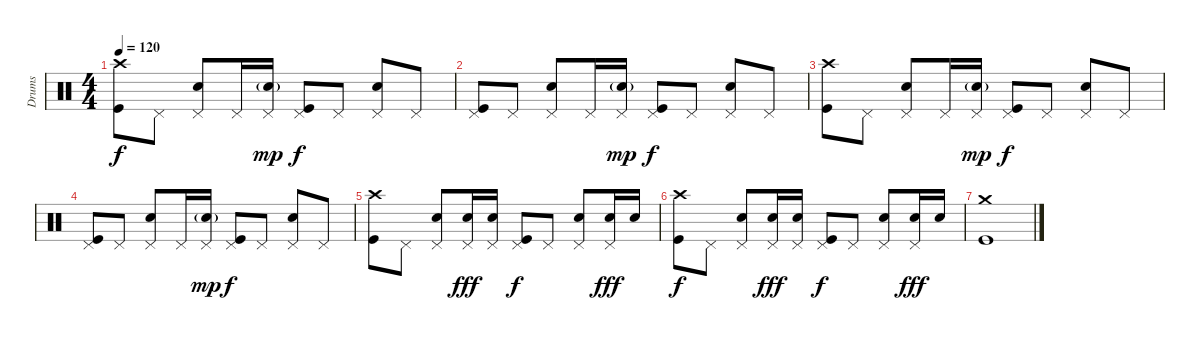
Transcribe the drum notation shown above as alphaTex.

\track ("Drums" "Drums") {instrument percussion}
\staff {score}
\articulation defaults
\ts (4 4)
\tempo 120
\clef neutral
\ks c
("Crash high (hit)" "Kick (hit)").8{dy f} "Pedal Hi-Hat (hit)".8 ("Snare (hit) 2" "Pedal Hi-Hat (hit)").8 "Pedal Hi-Hat (hit)".16 ("Snare (hit) 2"{g} "Pedal Hi-Hat (hit)").16{dy mp} ("Kick (hit)" "Pedal Hi-Hat (hit)").8{dy f} "Pedal Hi-Hat (hit)".8 ("Snare (hit) 2" "Pedal Hi-Hat (hit)").8 "Pedal Hi-Hat (hit)".8 |
("Kick (hit)" "Pedal Hi-Hat (hit)").8 "Pedal Hi-Hat (hit)".8 ("Snare (hit) 2" "Pedal Hi-Hat (hit)").8 "Pedal Hi-Hat (hit)".16 ("Snare (hit) 2"{g} "Pedal Hi-Hat (hit)").16{dy mp} ("Kick (hit)" "Pedal Hi-Hat (hit)").8{dy f} "Pedal Hi-Hat (hit)".8 ("Snare (hit) 2" "Pedal Hi-Hat (hit)").8 "Pedal Hi-Hat (hit)".8 |
("Crash high (hit)" "Kick (hit)").8 "Pedal Hi-Hat (hit)".8 ("Snare (hit) 2" "Pedal Hi-Hat (hit)").8 "Pedal Hi-Hat (hit)".16 ("Snare (hit) 2"{g} "Pedal Hi-Hat (hit)").16{dy mp} ("Kick (hit)" "Pedal Hi-Hat (hit)").8{dy f} "Pedal Hi-Hat (hit)".8 ("Snare (hit) 2" "Pedal Hi-Hat (hit)").8 "Pedal Hi-Hat (hit)".8 |
("Kick (hit)" "Pedal Hi-Hat (hit)").8 "Pedal Hi-Hat (hit)".8 ("Snare (hit) 2" "Pedal Hi-Hat (hit)").8 "Pedal Hi-Hat (hit)".16 ("Snare (hit) 2"{g} "Pedal Hi-Hat (hit)").16{dy mp} ("Kick (hit)" "Pedal Hi-Hat (hit)").8{dy f} "Pedal Hi-Hat (hit)".8 ("Snare (hit) 2" "Pedal Hi-Hat (hit)").8 "Pedal Hi-Hat (hit)".8 |
("Crash high (hit)" "Kick (hit)").8 "Pedal Hi-Hat (hit)".8 ("Snare (hit) 2" "Pedal Hi-Hat (hit)").8 ("Snare (hit) 2" "Pedal Hi-Hat (hit)").16{dy fff} ("Snare (hit) 2" "Pedal Hi-Hat (hit)").16 ("Kick (hit)" "Pedal Hi-Hat (hit)").8{dy f} "Pedal Hi-Hat (hit)".8 ("Snare (hit) 2" "Pedal Hi-Hat (hit)").8 ("Snare (hit) 2" "Pedal Hi-Hat (hit)").16{dy fff} "Snare (hit) 2".16 |
("Crash high (hit)" "Kick (hit)").8{dy f} "Pedal Hi-Hat (hit)".8 ("Snare (hit) 2" "Pedal Hi-Hat (hit)").8 ("Snare (hit) 2" "Pedal Hi-Hat (hit)").16{dy fff} ("Snare (hit) 2" "Pedal Hi-Hat (hit)").16 ("Kick (hit)" "Pedal Hi-Hat (hit)").8{dy f} "Pedal Hi-Hat (hit)".8 ("Snare (hit) 2" "Pedal Hi-Hat (hit)").8 ("Snare (hit) 2" "Pedal Hi-Hat (hit)").16{dy fff} "Snare (hit) 2".16 |
("Crash medium (hit)" "Kick (hit)").1
